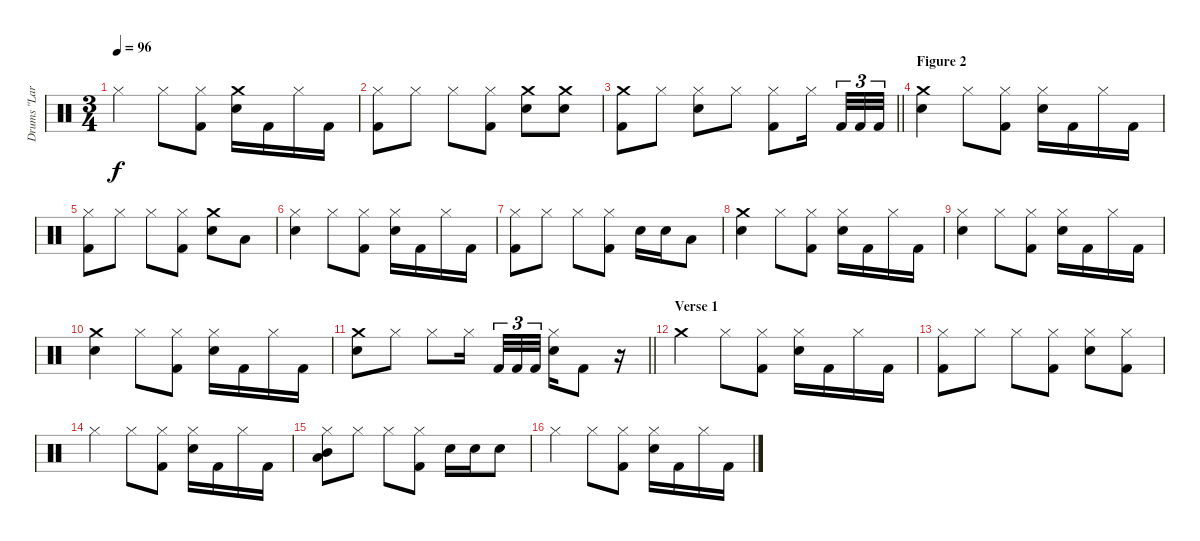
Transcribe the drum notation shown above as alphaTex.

\track ("Drums \"Lars Ulrich\"" "Drums \"Lar") {instrument percussion}
\staff {score}
\articulation defaults
\ts (3 4)
\tempo 96
\clef neutral
\ks c "Hi-Hat (closed)".4{dy f} "Hi-Hat (closed)".8
("Hi-Hat (closed)" "Kick (hit) 2").8 ("Crash medium (hit)" "Electric Snare (hit)").16 "Kick (hit) 2".16 "Hi-Hat (closed)".16 "Kick (hit) 2".16 |
("Hi-Hat (closed)" "Kick (hit) 2").8 "Hi-Hat (closed)".8 "Hi-Hat (closed)".8 ("Hi-Hat (closed)" "Kick (hit) 2").8 ("Crash medium (hit)" "Electric Snare (hit)").8 ("Crash medium (hit)" "Electric Snare (hit)").8 |
\barLineRight lightlight
("Crash medium (hit)" "Kick (hit) 2").8 "Hi-Hat (closed)".8 ("Hi-Hat (closed)" "Electric Snare (hit)").8 "Hi-Hat (closed)".8 ("Hi-Hat (closed)" "Kick (hit) 2").8 "Hi-Hat (closed)".16{beam splitsecondary} "Kick (hit) 2".32{tu (3 2)} "Kick (hit) 2".32{tu (3 2)} "Kick (hit) 2".32{tu (3 2)} |
\section ("" "Figure 2")
("Crash medium (hit)" "Electric Snare (hit)").4 "Hi-Hat (closed)".8 ("Hi-Hat (closed)" "Kick (hit) 2").8 ("Hi-Hat (closed)" "Electric Snare (hit)").16 "Kick (hit) 2".16 "Hi-Hat (closed)".16 "Kick (hit) 2".16 |
("Hi-Hat (closed)" "Kick (hit) 2").8 "Hi-Hat (closed)".8 "Hi-Hat (closed)".8 ("Hi-Hat (closed)" "Kick (hit) 2").8 ("Crash medium (hit)" "Electric Snare (hit)").8 "Low Tom (hit)".8 |
("Hi-Hat (closed)" "Electric Snare (hit)").4 "Hi-Hat (closed)".8 ("Hi-Hat (closed)" "Kick (hit) 2").8 ("Hi-Hat (closed)" "Electric Snare (hit)").16 "Kick (hit) 2".16 "Hi-Hat (closed)".16 "Kick (hit) 2".16 |
("Hi-Hat (closed)" "Kick (hit) 2").8 "Hi-Hat (closed)".8 "Hi-Hat (closed)".8 ("Hi-Hat (closed)" "Kick (hit) 2").8 "Electric Snare (hit)".16 "Electric Snare (hit)".16 "Low Tom (hit)".8 |
("Crash medium (hit)" "Electric Snare (hit)").4 "Hi-Hat (closed)".8 ("Hi-Hat (closed)" "Kick (hit) 2").8 ("Hi-Hat (closed)" "Electric Snare (hit)").16 "Kick (hit) 2".16 "Hi-Hat (closed)".16 "Kick (hit) 2".16 |
("Hi-Hat (closed)" "Electric Snare (hit)").4 "Hi-Hat (closed)".8 ("Hi-Hat (closed)" "Kick (hit) 2").8 ("Hi-Hat (closed)" "Electric Snare (hit)").16 "Kick (hit) 2".16 "Hi-Hat (closed)".16 "Kick (hit) 2".16 |
("Crash medium (hit)" "Electric Snare (hit)").4 "Hi-Hat (closed)".8 ("Hi-Hat (closed)" "Kick (hit) 2").8 ("Hi-Hat (closed)" "Electric Snare (hit)").16 "Kick (hit) 2".16 "Hi-Hat (closed)".16 "Kick (hit) 2".16 |
\barLineRight lightlight
("Crash medium (hit)" "Electric Snare (hit)").8 "Hi-Hat (closed)".8 "Hi-Hat (closed)".8 "Hi-Hat (closed)".16{beam splitsecondary} "Kick (hit) 2".32{tu (3 2)} "Kick (hit) 2".32{tu (3 2)} "Kick (hit) 2".32{tu (3 2)} ("Hi-Hat (closed)" "Electric Snare (hit)").16 "Kick (hit) 2".8 r.16 |
\section ("" "Verse 1")
"Crash medium (hit)".4 "Hi-Hat (closed)".8 ("Hi-Hat (closed)" "Kick (hit) 2").8 ("Hi-Hat (closed)" "Electric Snare (hit)").16 "Kick (hit) 2".16 "Hi-Hat (closed)".16 "Kick (hit) 2".16 |
("Hi-Hat (closed)" "Kick (hit) 2").8 "Hi-Hat (closed)".8 "Hi-Hat (closed)".8 ("Hi-Hat (closed)" "Kick (hit) 2").8 ("Hi-Hat (closed)" "Electric Snare (hit)").8 ("Hi-Hat (closed)" "Kick (hit) 2").8 |
"Hi-Hat (closed)".4 "Hi-Hat (closed)".8 ("Hi-Hat (closed)" "Kick (hit) 2").8 ("Hi-Hat (closed)" "Electric Snare (hit)").16 "Kick (hit) 2".16 "Hi-Hat (closed)".16 "Kick (hit) 2".16 |
("Mid Tom (hit)" "Low Tom (hit)" "Hi-Hat (closed)").8 "Hi-Hat (closed)".8 "Hi-Hat (closed)".8 ("Hi-Hat (closed)" "Kick (hit) 2").8 "Electric Snare (hit)".16 "Electric Snare (hit)".16 "Electric Snare (hit)".8 |
"Hi-Hat (closed)".4 "Hi-Hat (closed)".8 ("Hi-Hat (closed)" "Kick (hit) 2").8 ("Hi-Hat (closed)" "Electric Snare (hit)").16 "Kick (hit) 2".16 "Hi-Hat (closed)".16 "Kick (hit) 2".16
